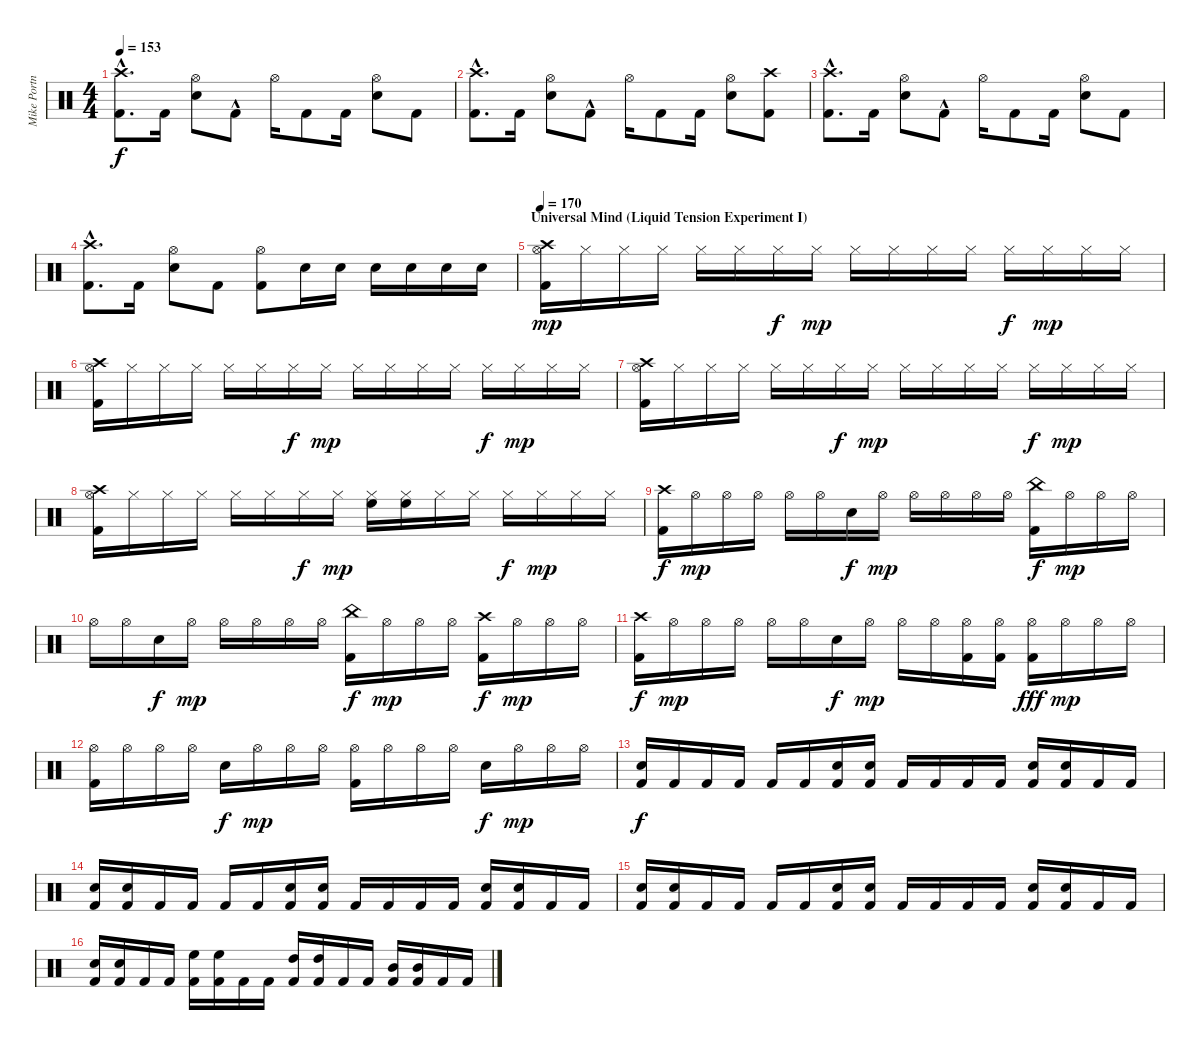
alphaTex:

\track ("Mike Portnoy Drums" "Mike Portn") {instrument percussion}
\staff {score}
\articulation defaults
\ts (4 4)
\tempo 153
\clef neutral
\ks c
("Kick (hit) 2"{hac} "Crash high (hit)").8{d dy f} "Kick (hit) 2".16 ("Electric Snare (hit)" "Hi-Hat (open)").8 "Kick (hit) 2"{hac}.8 "Hi-Hat (open)".16 "Kick (hit) 2".8 "Kick (hit) 2".16 ("Electric Snare (hit)" "Hi-Hat (open)").8 "Kick (hit) 2".8 |
("Kick (hit) 2"{hac} "Crash high (hit)").8{d} "Kick (hit) 2".16 ("Electric Snare (hit)" "Hi-Hat (open)").8 "Kick (hit) 2"{hac}.8 "Hi-Hat (open)".16 "Kick (hit) 2".8 "Kick (hit) 2".16 ("Electric Snare (hit)" "Hi-Hat (open)").8 ("Kick (hit) 2" "Crash high (hit)").8 |
("Crash high (hit)" "Kick (hit) 2"{hac}).8{d} "Kick (hit) 2".16 ("Electric Snare (hit)" "Hi-Hat (open)").8 "Kick (hit) 2"{hac}.8 "Hi-Hat (open)".16 "Kick (hit) 2".8 "Kick (hit) 2".16 ("Electric Snare (hit)" "Hi-Hat (open)").8 "Kick (hit) 2".8 |
("Kick (hit) 2"{hac} "Crash high (hit)").8{d} "Kick (hit) 2".16 ("Electric Snare (hit)" "Hi-Hat (open)").8 "Kick (hit) 2".8 ("Kick (hit) 2" "Hi-Hat (open)").8 "Electric Snare (hit)".16 "Electric Snare (hit)".16 "Electric Snare (hit)".16 "Electric Snare (hit)".16 "Electric Snare (hit)".16 "Electric Snare (hit)".16 |
\section ("" "Universal Mind (Liquid Tension Experiment I)")
\tempo 170
("Crash high (hit)" "Kick (hit) 2" "Hi-Hat (open)").16{dy mp} "Hi-Hat (closed)".16 "Hi-Hat (closed)".16 "Hi-Hat (closed)".16 "Hi-Hat (closed)".16 "Hi-Hat (closed)".16 "Hi-Hat (closed)".16{dy f} "Hi-Hat (closed)".16{dy mp} "Hi-Hat (closed)".16 "Hi-Hat (closed)".16 "Hi-Hat (closed)".16 "Hi-Hat (closed)".16 "Hi-Hat (closed)".16{dy f} "Hi-Hat (closed)".16{dy mp} "Hi-Hat (closed)".16 "Hi-Hat (closed)".16 |
("Crash high (hit)" "Kick (hit) 2" "Hi-Hat (open)").16 "Hi-Hat (closed)".16 "Hi-Hat (closed)".16 "Hi-Hat (closed)".16 "Hi-Hat (closed)".16 "Hi-Hat (closed)".16 "Hi-Hat (closed)".16{dy f} "Hi-Hat (closed)".16{dy mp} "Hi-Hat (closed)".16 "Hi-Hat (closed)".16 "Hi-Hat (closed)".16 "Hi-Hat (closed)".16 "Hi-Hat (closed)".16{dy f} "Hi-Hat (closed)".16{dy mp} "Hi-Hat (closed)".16 "Hi-Hat (closed)".16 |
("Crash high (hit)" "Kick (hit) 2" "Hi-Hat (open)").16 "Hi-Hat (closed)".16 "Hi-Hat (closed)".16 "Hi-Hat (closed)".16 "Hi-Hat (closed)".16 "Hi-Hat (closed)".16 "Hi-Hat (closed)".16{dy f} "Hi-Hat (closed)".16{dy mp} "Hi-Hat (closed)".16 "Hi-Hat (closed)".16 "Hi-Hat (closed)".16 "Hi-Hat (closed)".16 "Hi-Hat (closed)".16{dy f} "Hi-Hat (closed)".16{dy mp} "Hi-Hat (closed)".16 "Hi-Hat (closed)".16 |
("Crash high (hit)" "Kick (hit) 2" "Hi-Hat (open)").16 "Hi-Hat (closed)".16 "Hi-Hat (closed)".16 "Hi-Hat (closed)".16 "Hi-Hat (closed)".16 "Hi-Hat (closed)".16 "Hi-Hat (closed)".16{dy f} "Hi-Hat (closed)".16{dy mp} ("Hi-Hat (closed)" "High Floor Tom (hit)").16 ("Hi-Hat (closed)" "High Floor Tom (hit)").16 "Hi-Hat (closed)".16 "Hi-Hat (closed)".16 "Hi-Hat (closed)".16{dy f} "Hi-Hat (closed)".16{dy mp} "Hi-Hat (closed)".16 "Hi-Hat (closed)".16 |
("Crash high (hit)" "Kick (hit) 2").16{dy f} "Hi-Hat (open)".16{dy mp} "Hi-Hat (open)".16 "Hi-Hat (open)".16 "Hi-Hat (open)".16 "Hi-Hat (open)".16 "Electric Snare (hit)".16{dy f} "Hi-Hat (open)".16{dy mp} "Hi-Hat (open)".16 "Hi-Hat (open)".16 "Hi-Hat (open)".16 "Hi-Hat (open)".16 ("China (hit)" "Kick (hit) 2").16{dy f} "Hi-Hat (open)".16{dy mp} "Hi-Hat (open)".16 "Hi-Hat (open)".16 |
"Hi-Hat (open)".16 "Hi-Hat (open)".16 "Electric Snare (hit)".16{dy f} "Hi-Hat (open)".16{dy mp} "Hi-Hat (open)".16 "Hi-Hat (open)".16 "Hi-Hat (open)".16 "Hi-Hat (open)".16 ("China (hit)" "Kick (hit) 2").16{dy f} "Hi-Hat (open)".16{dy mp} "Hi-Hat (open)".16 "Hi-Hat (open)".16 ("Crash high (hit)" "Kick (hit) 2").16{dy f} "Hi-Hat (open)".16{dy mp} "Hi-Hat (open)".16 "Hi-Hat (open)".16 |
("Kick (hit) 2" "Crash high (hit)").16{dy f} "Hi-Hat (open)".16{dy mp} "Hi-Hat (open)".16 "Hi-Hat (open)".16 "Hi-Hat (open)".16 "Hi-Hat (open)".16 "Electric Snare (hit)".16{dy f} "Hi-Hat (open)".16{dy mp} "Hi-Hat (open)".16 "Hi-Hat (open)".16 ("Kick (hit) 2" "Hi-Hat (open)").16 ("Kick (hit) 2" "Hi-Hat (open)").16 ("Hi-Hat (open)" "Kick (hit) 2").16{dy fff} "Hi-Hat (open)".16{dy mp} "Hi-Hat (open)".16 "Hi-Hat (open)".16 |
("Kick (hit) 2" "Hi-Hat (open)").16 "Hi-Hat (open)".16 "Hi-Hat (open)".16 "Hi-Hat (open)".16 "Electric Snare (hit)".16{dy f} "Hi-Hat (open)".16{dy mp} "Hi-Hat (open)".16 "Hi-Hat (open)".16 ("Kick (hit) 2" "Hi-Hat (open)").16 "Hi-Hat (open)".16 "Hi-Hat (open)".16 "Hi-Hat (open)".16 "Electric Snare (hit)".16{dy f} "Hi-Hat (open)".16{dy mp} "Hi-Hat (open)".16 "Hi-Hat (open)".16 |
("Electric Snare (hit)" "Kick (hit) 2").16{dy f} "Kick (hit) 2".16 "Kick (hit) 2".16 "Kick (hit) 2".16 "Kick (hit) 2".16 "Kick (hit) 2".16 ("Kick (hit) 2" "Electric Snare (hit)").16 ("Kick (hit) 2" "Electric Snare (hit)").16 "Kick (hit) 2".16 "Kick (hit) 2".16 "Kick (hit) 2".16 "Kick (hit) 2".16 ("Kick (hit) 2" "Electric Snare (hit)").16 ("Kick (hit) 2" "Electric Snare (hit)").16 "Kick (hit) 2".16 "Kick (hit) 2".16 |
("Kick (hit) 2" "Electric Snare (hit)").16 ("Kick (hit) 2" "Electric Snare (hit)").16 "Kick (hit) 2".16 "Kick (hit) 2".16 "Kick (hit) 2".16 "Kick (hit) 2".16 ("Kick (hit) 2" "Electric Snare (hit)").16 ("Kick (hit) 2" "Electric Snare (hit)").16 "Kick (hit) 2".16 "Kick (hit) 2".16 "Kick (hit) 2".16 "Kick (hit) 2".16 ("Kick (hit) 2" "Electric Snare (hit)").16 ("Kick (hit) 2" "Electric Snare (hit)").16 "Kick (hit) 2".16 "Kick (hit) 2".16 |
("Kick (hit) 2" "Electric Snare (hit)").16 ("Kick (hit) 2" "Electric Snare (hit)").16 "Kick (hit) 2".16 "Kick (hit) 2".16 "Kick (hit) 2".16 "Kick (hit) 2".16 ("Kick (hit) 2" "Electric Snare (hit)").16 ("Kick (hit) 2" "Electric Snare (hit)").16 "Kick (hit) 2".16 "Kick (hit) 2".16 "Kick (hit) 2".16 "Kick (hit) 2".16 ("Kick (hit) 2" "Electric Snare (hit)").16 ("Kick (hit) 2" "Electric Snare (hit)").16 "Kick (hit) 2".16 "Kick (hit) 2".16 |
("Kick (hit) 2" "Electric Snare (hit)").16 ("Kick (hit) 2" "Electric Snare (hit)").16 "Kick (hit) 2".16 "Kick (hit) 2".16 ("Kick (hit) 2" "High Floor Tom (hit)").16 ("Kick (hit) 2" "High Floor Tom (hit)").16 "Kick (hit) 2".16 "Kick (hit) 2".16 ("Kick (hit) 2" "High Tom (hit)").16 ("Kick (hit) 2" "High Tom (hit)").16 "Kick (hit) 2".16 "Kick (hit) 2".16 ("Kick (hit) 2" "Mid Tom (hit)").16 ("Kick (hit) 2" "Mid Tom (hit)").16 "Kick (hit) 2".16 "Kick (hit) 2".16
